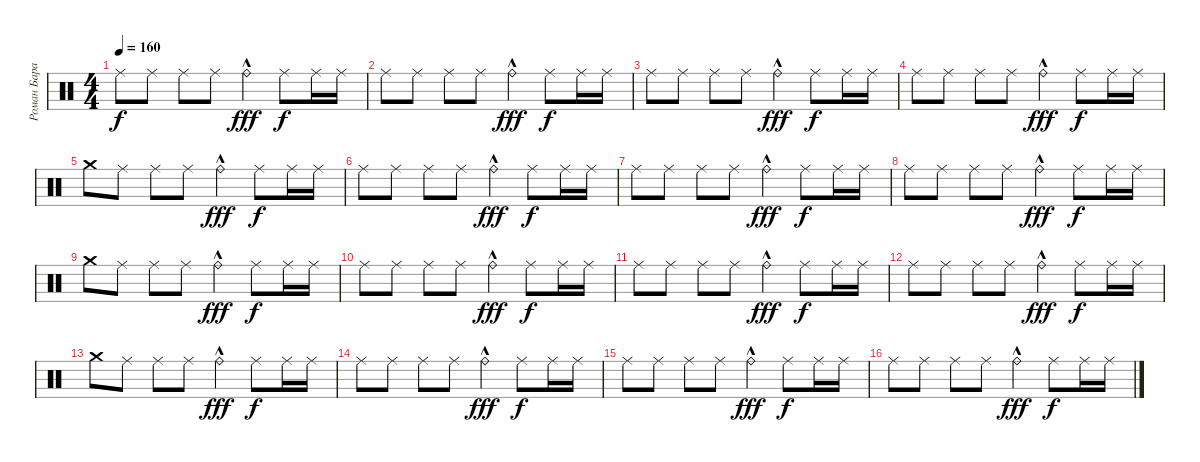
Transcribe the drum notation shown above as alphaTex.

\track ("Роман Баранюк" "Роман Бара") {instrument percussion}
\staff {score}
\articulation defaults
\ts (4 4)
\tempo 160
\clef neutral
\ks c "Ride (middle)".8{dy f} "Ride (middle)".8 "Ride (middle)".8 "Ride (middle)".8 "Ride (bell)"{hac}.4{dy fff} "Ride (middle)".8{dy f} "Ride (middle)".16 "Ride (middle)".16
|
"Ride (middle)".8 "Ride (middle)".8 "Ride (middle)".8 "Ride (middle)".8 "Ride (bell)"{hac}.4{dy fff} "Ride (middle)".8{dy f} "Ride (middle)".16 "Ride (middle)".16 |
"Ride (middle)".8 "Ride (middle)".8 "Ride (middle)".8 "Ride (middle)".8 "Ride (bell)"{hac}.4{dy fff} "Ride (middle)".8{dy f} "Ride (middle)".16 "Ride (middle)".16 |
"Ride (middle)".8 "Ride (middle)".8 "Ride (middle)".8 "Ride (middle)".8 "Ride (bell)"{hac}.4{dy fff} "Ride (middle)".8{dy f} "Ride (middle)".16 "Ride (middle)".16 |
"Crash medium (hit)".8 "Ride (middle)".8 "Ride (middle)".8 "Ride (middle)".8 "Ride (bell)"{hac}.4{dy fff} "Ride (middle)".8{dy f} "Ride (middle)".16 "Ride (middle)".16 |
"Ride (middle)".8 "Ride (middle)".8 "Ride (middle)".8 "Ride (middle)".8 "Ride (bell)"{hac}.4{dy fff} "Ride (middle)".8{dy f} "Ride (middle)".16 "Ride (middle)".16 |
"Ride (middle)".8 "Ride (middle)".8 "Ride (middle)".8 "Ride (middle)".8 "Ride (bell)"{hac}.4{dy fff} "Ride (middle)".8{dy f} "Ride (middle)".16 "Ride (middle)".16 |
"Ride (middle)".8 "Ride (middle)".8 "Ride (middle)".8 "Ride (middle)".8 "Ride (bell)"{hac}.4{dy fff} "Ride (middle)".8{dy f} "Ride (middle)".16 "Ride (middle)".16 |
"Crash medium (hit)".8 "Ride (middle)".8 "Ride (middle)".8 "Ride (middle)".8 "Ride (bell)"{hac}.4{dy fff} "Ride (middle)".8{dy f} "Ride (middle)".16 "Ride (middle)".16 |
"Ride (middle)".8 "Ride (middle)".8 "Ride (middle)".8 "Ride (middle)".8 "Ride (bell)"{hac}.4{dy fff} "Ride (middle)".8{dy f} "Ride (middle)".16 "Ride (middle)".16 |
"Ride (middle)".8 "Ride (middle)".8 "Ride (middle)".8 "Ride (middle)".8 "Ride (bell)"{hac}.4{dy fff} "Ride (middle)".8{dy f} "Ride (middle)".16 "Ride (middle)".16 |
"Ride (middle)".8 "Ride (middle)".8 "Ride (middle)".8 "Ride (middle)".8 "Ride (bell)"{hac}.4{dy fff} "Ride (middle)".8{dy f} "Ride (middle)".16 "Ride (middle)".16 |
"Crash medium (hit)".8 "Ride (middle)".8 "Ride (middle)".8 "Ride (middle)".8 "Ride (bell)"{hac}.4{dy fff} "Ride (middle)".8{dy f} "Ride (middle)".16 "Ride (middle)".16 |
"Ride (middle)".8 "Ride (middle)".8 "Ride (middle)".8 "Ride (middle)".8 "Ride (bell)"{hac}.4{dy fff} "Ride (middle)".8{dy f} "Ride (middle)".16 "Ride (middle)".16 |
"Ride (middle)".8 "Ride (middle)".8 "Ride (middle)".8 "Ride (middle)".8 "Ride (bell)"{hac}.4{dy fff} "Ride (middle)".8{dy f} "Ride (middle)".16 "Ride (middle)".16 |
"Ride (middle)".8 "Ride (middle)".8 "Ride (middle)".8 "Ride (middle)".8 "Ride (bell)"{hac}.4{dy fff} "Ride (middle)".8{dy f} "Ride (middle)".16 "Ride (middle)".16
